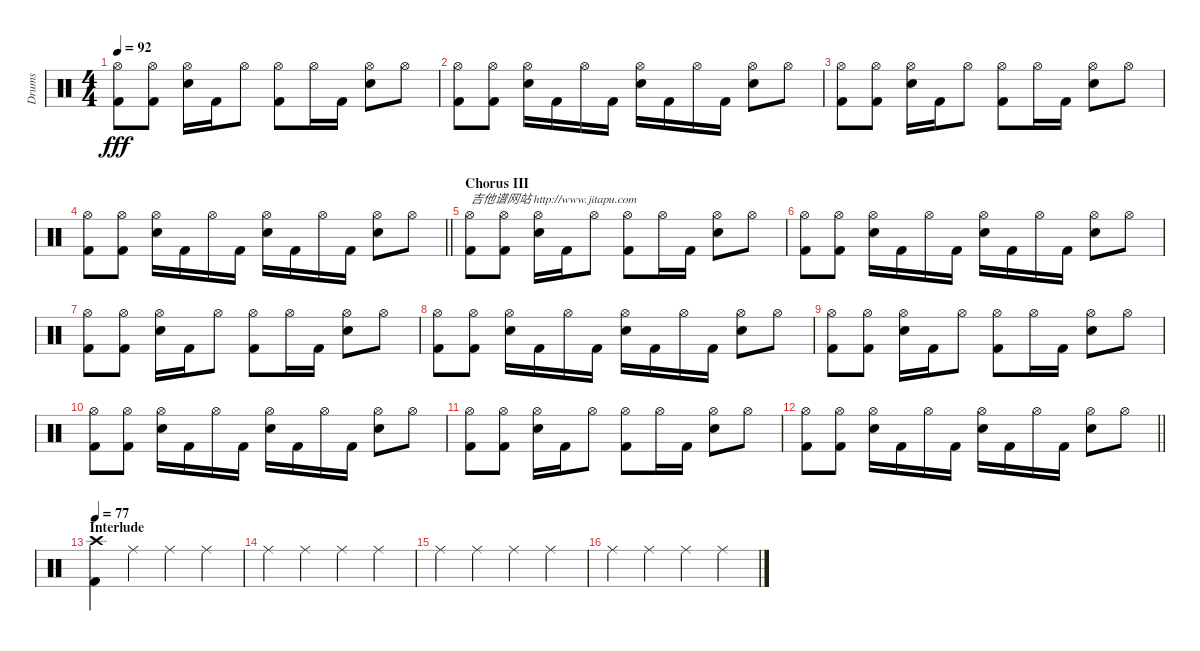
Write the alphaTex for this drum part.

\track ("Drums" "Drums") {instrument percussion}
\staff {score}
\articulation defaults
\ts (4 4)
\tempo 92
\clef neutral
\ks c
("Hi-Hat (open)" "Kick (hit) 2").8{dy fff} ("Hi-Hat (open)" "Kick (hit) 2").8 ("Hi-Hat (open)" "Snare (hit) 2").16 "Kick (hit) 2".16 "Hi-Hat (open)".8 ("Hi-Hat (open)" "Kick (hit) 2").8 "Hi-Hat (open)".16 "Kick (hit) 2".16 ("Hi-Hat (open)" "Snare (hit) 2").8 "Hi-Hat (open)".8 |
("Hi-Hat (open)" "Kick (hit) 2").8 ("Hi-Hat (open)" "Kick (hit) 2").8 ("Hi-Hat (open)" "Snare (hit) 2").16 "Kick (hit) 2".16 "Hi-Hat (open)".16 "Kick (hit) 2".16 ("Hi-Hat (open)" "Snare (hit) 2").16 "Kick (hit) 2".16 "Hi-Hat (open)".16 "Kick (hit) 2".16 ("Hi-Hat (open)" "Snare (hit) 2").8 "Hi-Hat (open)".8 |
("Hi-Hat (open)" "Kick (hit) 2").8 ("Hi-Hat (open)" "Kick (hit) 2").8 ("Hi-Hat (open)" "Snare (hit) 2").16 "Kick (hit) 2".16 "Hi-Hat (open)".8 ("Hi-Hat (open)" "Kick (hit) 2").8 "Hi-Hat (open)".16 "Kick (hit) 2".16 ("Hi-Hat (open)" "Snare (hit) 2").8 "Hi-Hat (open)".8 |
\barLineRight lightlight
("Hi-Hat (open)" "Kick (hit) 2").8 ("Hi-Hat (open)" "Kick (hit) 2").8 ("Hi-Hat (open)" "Snare (hit) 2").16 "Kick (hit) 2".16 "Hi-Hat (open)".16 "Kick (hit) 2".16 ("Hi-Hat (open)" "Snare (hit) 2").16 "Kick (hit) 2".16 "Hi-Hat (open)".16 "Kick (hit) 2".16 ("Hi-Hat (open)" "Snare (hit) 2").8 "Hi-Hat (open)".8 |
\section ("" "Chorus III")
("Hi-Hat (open)" "Kick (hit) 2").8{txt "吉他谱网站 http://www.jitapu.com"} ("Hi-Hat (open)" "Kick (hit) 2").8 ("Hi-Hat (open)" "Snare (hit) 2").16 "Kick (hit) 2".16 "Hi-Hat (open)".8 ("Hi-Hat (open)" "Kick (hit) 2").8 "Hi-Hat (open)".16 "Kick (hit) 2".16 ("Hi-Hat (open)" "Snare (hit) 2").8 "Hi-Hat (open)".8 |
("Hi-Hat (open)" "Kick (hit) 2").8 ("Hi-Hat (open)" "Kick (hit) 2").8 ("Hi-Hat (open)" "Snare (hit) 2").16 "Kick (hit) 2".16 "Hi-Hat (open)".16 "Kick (hit) 2".16 ("Hi-Hat (open)" "Snare (hit) 2").16 "Kick (hit) 2".16 "Hi-Hat (open)".16 "Kick (hit) 2".16 ("Hi-Hat (open)" "Snare (hit) 2").8 "Hi-Hat (open)".8 |
("Hi-Hat (open)" "Kick (hit) 2").8 ("Hi-Hat (open)" "Kick (hit) 2").8 ("Hi-Hat (open)" "Snare (hit) 2").16 "Kick (hit) 2".16 "Hi-Hat (open)".8 ("Hi-Hat (open)" "Kick (hit) 2").8 "Hi-Hat (open)".16 "Kick (hit) 2".16 ("Hi-Hat (open)" "Snare (hit) 2").8 "Hi-Hat (open)".8 |
("Hi-Hat (open)" "Kick (hit) 2").8 ("Hi-Hat (open)" "Kick (hit) 2").8 ("Hi-Hat (open)" "Snare (hit) 2").16 "Kick (hit) 2".16 "Hi-Hat (open)".16 "Kick (hit) 2".16 ("Hi-Hat (open)" "Snare (hit) 2").16 "Kick (hit) 2".16 "Hi-Hat (open)".16 "Kick (hit) 2".16 ("Hi-Hat (open)" "Snare (hit) 2").8 "Hi-Hat (open)".8 |
("Hi-Hat (open)" "Kick (hit) 2").8 ("Hi-Hat (open)" "Kick (hit) 2").8 ("Hi-Hat (open)" "Snare (hit) 2").16 "Kick (hit) 2".16 "Hi-Hat (open)".8 ("Hi-Hat (open)" "Kick (hit) 2").8 "Hi-Hat (open)".16 "Kick (hit) 2".16 ("Hi-Hat (open)" "Snare (hit) 2").8 "Hi-Hat (open)".8 |
("Hi-Hat (open)" "Kick (hit) 2").8 ("Hi-Hat (open)" "Kick (hit) 2").8 ("Hi-Hat (open)" "Snare (hit) 2").16 "Kick (hit) 2".16 "Hi-Hat (open)".16 "Kick (hit) 2".16 ("Hi-Hat (open)" "Snare (hit) 2").16 "Kick (hit) 2".16 "Hi-Hat (open)".16 "Kick (hit) 2".16 ("Hi-Hat (open)" "Snare (hit) 2").8 "Hi-Hat (open)".8 |
("Hi-Hat (open)" "Kick (hit) 2").8 ("Hi-Hat (open)" "Kick (hit) 2").8 ("Hi-Hat (open)" "Snare (hit) 2").16 "Kick (hit) 2".16 "Hi-Hat (open)".8 ("Hi-Hat (open)" "Kick (hit) 2").8 "Hi-Hat (open)".16 "Kick (hit) 2".16 ("Hi-Hat (open)" "Snare (hit) 2").8 "Hi-Hat (open)".8 |
\barLineRight lightlight
("Hi-Hat (open)" "Kick (hit) 2").8 ("Hi-Hat (open)" "Kick (hit) 2").8 ("Hi-Hat (open)" "Snare (hit) 2").16 "Kick (hit) 2".16 "Hi-Hat (open)".16 "Kick (hit) 2".16 ("Hi-Hat (open)" "Snare (hit) 2").16 "Kick (hit) 2".16 "Hi-Hat (open)".16 "Kick (hit) 2".16 ("Hi-Hat (open)" "Snare (hit) 2").8 "Hi-Hat (open)".8 |
\section ("" "Interlude")
\tempo 77
("Crash high (hit)" "Kick (hit) 2").4 "Ride (middle)".4 "Ride (middle)".4 "Ride (middle)".4 |
"Ride (middle)".4 "Ride (middle)".4 "Ride (middle)".4 "Ride (middle)".4 |
"Ride (middle)".4 "Ride (middle)".4 "Ride (middle)".4 "Ride (middle)".4 |
"Ride (middle)".4 "Ride (middle)".4 "Ride (middle)".4 "Ride (middle)".4
